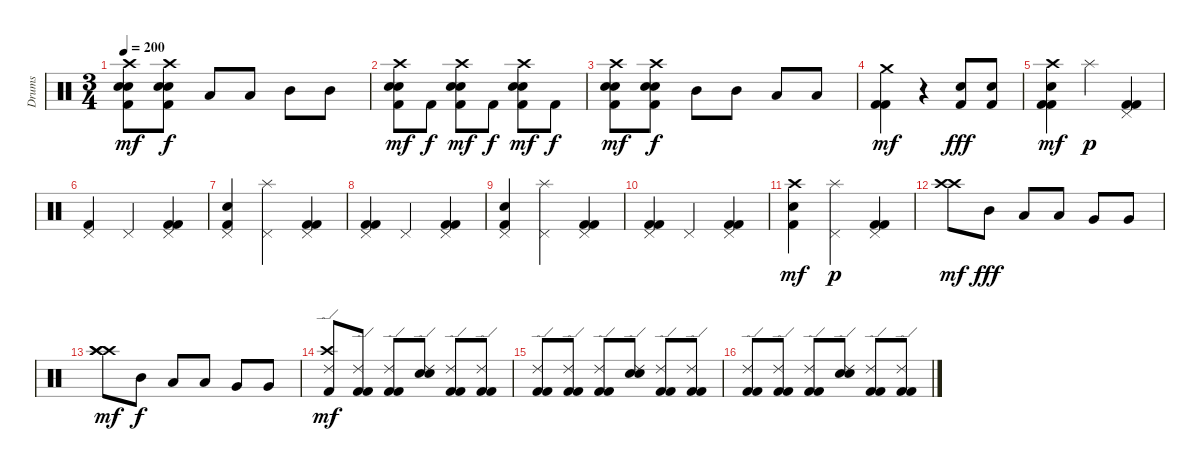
\track ("Drums" "Drums") {instrument percussion bank 41}
\staff
\articulation defaults
\ts (3 4)
\tempo 200
\clef neutral
\ks c
("Kick (hit) 2" "Snare (hit) 2" "Electric Snare (hit)" "Crash high (hit)").8{dy mf} ("Kick (hit) 2" "Snare (hit) 2" "Electric Snare (hit)" "Crash high (hit)").8{dy f} "Low Tom (hit)".8 "Low Tom (hit)".8 "Mid Tom (hit)".8 "Mid Tom (hit)".8 |
("Kick (hit) 2" "Snare (hit) 2" "Electric Snare (hit)" "Crash high (hit)").8{dy mf} "Kick (hit) 2".8{dy f} ("Kick (hit) 2" "Snare (hit) 2" "Electric Snare (hit)" "Crash high (hit)").8{dy mf} "Kick (hit) 2".8{dy f} ("Kick (hit) 2" "Snare (hit) 2" "Snare (hit) 2" "Crash high (hit)").8{dy mf} "Kick (hit) 2".8{dy f} |
("Kick (hit) 2" "Snare (hit) 2" "Electric Snare (hit)" "Crash high (hit)").8{dy mf} ("Kick (hit) 2" "Snare (hit) 2" "Electric Snare (hit)" "Crash high (hit)").8{dy f} "Mid Tom (hit)".8 "Mid Tom (hit)".8 "Low Tom (hit)".8 "Low Tom (hit)".8 |
("Kick (hit) 2" "Kick (hit) 2" "Crash medium (hit)").4{dy mf} r.4 ("Kick (hit) 2" "Snare (hit) 2").8{dy fff} ("Kick (hit) 2" "Snare (hit) 2").8 |
("Kick (hit) 2" "Kick (hit) 2" "Crash high (hit)" "Electric Snare (hit)").4{dy mf} "Splash (hit)".4{dy p} ("Kick (hit) 2" "Kick (hit) 2" "Pedal Hi-Hat (hit)").4 |
("Kick (hit) 2" "Pedal Hi-Hat (hit)").4 "Pedal Hi-Hat (hit)".4 ("Kick (hit) 2" "Kick (hit) 2" "Pedal Hi-Hat (hit)").4 |
("Kick (hit) 2" "Snare (hit) 2" "Pedal Hi-Hat (hit)").4 ("Splash (hit)" "Pedal Hi-Hat (hit)").4 ("Kick (hit) 2" "Kick (hit) 2" "Pedal Hi-Hat (hit)").4 |
("Kick (hit) 2" "Kick (hit) 2" "Pedal Hi-Hat (hit)").4 "Pedal Hi-Hat (hit)".4 ("Kick (hit) 2" "Kick (hit) 2" "Pedal Hi-Hat (hit)").4 |
("Snare (hit) 2" "Kick (hit) 2" "Pedal Hi-Hat (hit)").4 ("Splash (hit)" "Pedal Hi-Hat (hit)").4 ("Kick (hit) 2" "Kick (hit) 2" "Pedal Hi-Hat (hit)").4 |
("Kick (hit) 2" "Kick (hit) 2" "Pedal Hi-Hat (hit)").4 "Pedal Hi-Hat (hit)".4 ("Kick (hit) 2" "Kick (hit) 2" "Pedal Hi-Hat (hit)").4 |
("Kick (hit) 2" "Snare (hit) 2" "Crash high (hit)").4{dy mf} ("Splash (hit)" "Pedal Hi-Hat (hit)").4{dy p} ("Kick (hit) 2" "Kick (hit) 2" "Pedal Hi-Hat (hit)").4 |
("Crash high (hit)" "Crash high (hit)").8{dy mf} "Mid Tom (hit)".8{dy fff} "Low Tom (hit)".8 "Low Tom (hit)".8 "Very Low Tom (hit)".8 "Very Low Tom (hit)".8 |
("Crash high (hit)" "Crash high (hit)" "Crash high (hit)").8{dy mf} "Mid Tom (hit)".8{dy f} "Low Tom (hit)".8 "Low Tom (hit)".8 "Very Low Tom (hit)".8 "Very Low Tom (hit)".8 |
("Kick (hit) 2" "Crash high (hit)" "Ride (edge) 2").8{dy mf} ("Kick (hit) 2" "Kick (hit) 2" "Ride (edge) 2").8 ("Kick (hit) 2" "Kick (hit) 2" "Ride (edge) 2").8 ("Snare (hit) 2" "Electric Snare (hit)" "Ride (edge) 2").8 ("Kick (hit) 2" "Kick (hit) 2" "Ride (edge) 2").8 ("Kick (hit) 2" "Kick (hit) 2" "Ride (edge) 2").8 |
("Kick (hit) 2" "Kick (hit) 2" "Ride (edge) 2").8 ("Kick (hit) 2" "Kick (hit) 2" "Ride (edge) 2").8 ("Kick (hit) 2" "Kick (hit) 2" "Ride (edge) 2").8 ("Snare (hit) 2" "Electric Snare (hit)" "Ride (edge) 2").8 ("Kick (hit) 2" "Kick (hit) 2" "Ride (edge) 2").8 ("Kick (hit) 2" "Kick (hit) 2" "Ride (edge) 2").8 |
("Kick (hit) 2" "Kick (hit) 2" "Ride (edge) 2").8 ("Kick (hit) 2" "Kick (hit) 2" "Ride (edge) 2").8 ("Kick (hit) 2" "Kick (hit) 2" "Ride (edge) 2").8 ("Snare (hit) 2" "Electric Snare (hit)" "Ride (edge) 2").8 ("Kick (hit) 2" "Kick (hit) 2" "Ride (edge) 2").8 ("Kick (hit) 2" "Kick (hit) 2" "Ride (edge) 2").8
